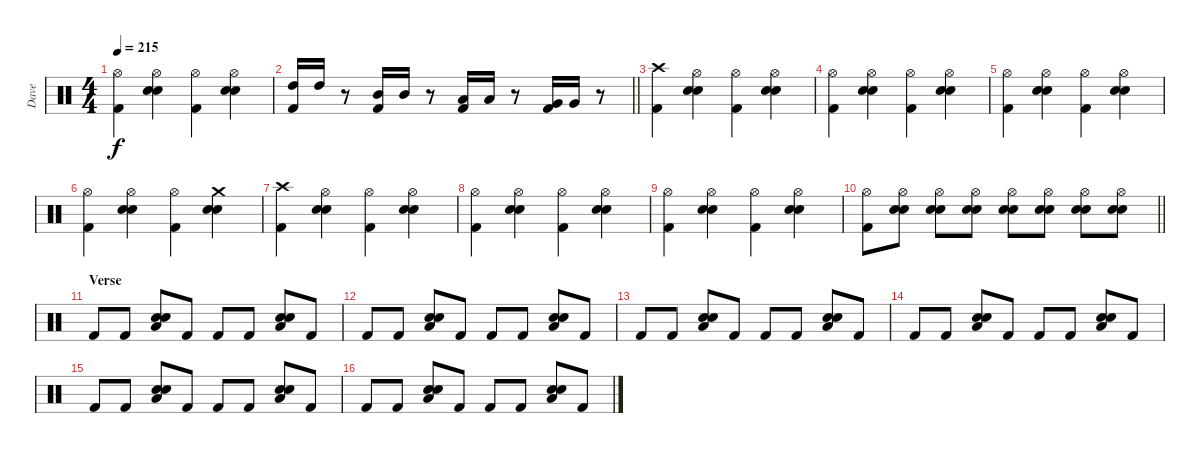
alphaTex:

\track ("Dave" "Dave") {instrument percussion}
\staff {score}
\articulation defaults
\ts (4 4)
\tempo 215
\clef neutral
\ks c
("Hi-Hat (open)" "Kick (hit) 2").4{dy f} ("Hi-Hat (open)" "Electric Snare (hit)" "Electric Snare (hit)").4 ("Hi-Hat (open)" "Kick (hit) 2").4 ("Hi-Hat (open)" "Electric Snare (hit)" "Electric Snare (hit)").4 |
\barLineRight lightlight
("Kick (hit) 2" "High Tom (hit)").16 "High Tom (hit)".16 r.8 ("Kick (hit) 2" "Mid Tom (hit)").16 "Mid Tom (hit)".16 r.8 ("Kick (hit) 2" "Low Tom (hit)").16 "Low Tom (hit)".16 r.8 ("Kick (hit) 2" "Very Low Tom (hit)").16 "Very Low Tom (hit)".16 r.8 |
("Crash high (hit)" "Kick (hit) 2").4 ("Hi-Hat (open)" "Electric Snare (hit)" "Electric Snare (hit)").4 ("Hi-Hat (open)" "Kick (hit) 2").4 ("Hi-Hat (open)" "Electric Snare (hit)" "Electric Snare (hit)").4 |
("Hi-Hat (open)" "Kick (hit) 2").4 ("Hi-Hat (open)" "Electric Snare (hit)" "Electric Snare (hit)").4 ("Hi-Hat (open)" "Kick (hit) 2").4 ("Hi-Hat (open)" "Electric Snare (hit)" "Electric Snare (hit)").4 |
("Hi-Hat (open)" "Kick (hit) 2").4 ("Hi-Hat (open)" "Electric Snare (hit)" "Electric Snare (hit)").4 ("Hi-Hat (open)" "Kick (hit) 2").4 ("Hi-Hat (open)" "Electric Snare (hit)" "Electric Snare (hit)").4 |
("Hi-Hat (open)" "Kick (hit) 2").4 ("Hi-Hat (open)" "Electric Snare (hit)" "Electric Snare (hit)").4 ("Hi-Hat (open)" "Kick (hit) 2").4 ("Crash medium (hit)" "Electric Snare (hit)" "Electric Snare (hit)").4 |
("Crash high (hit)" "Kick (hit) 2").4 ("Hi-Hat (open)" "Electric Snare (hit)" "Electric Snare (hit)").4 ("Hi-Hat (open)" "Kick (hit) 2").4 ("Hi-Hat (open)" "Electric Snare (hit)" "Electric Snare (hit)").4 |
("Hi-Hat (open)" "Kick (hit) 2").4 ("Hi-Hat (open)" "Electric Snare (hit)" "Electric Snare (hit)").4 ("Hi-Hat (open)" "Kick (hit) 2").4 ("Hi-Hat (open)" "Electric Snare (hit)" "Electric Snare (hit)").4 |
("Hi-Hat (open)" "Kick (hit) 2").4 ("Hi-Hat (open)" "Electric Snare (hit)" "Electric Snare (hit)").4 ("Hi-Hat (open)" "Kick (hit) 2").4 ("Hi-Hat (open)" "Electric Snare (hit)" "Electric Snare (hit)").4 |
\barLineRight lightlight
("Hi-Hat (open)" "Kick (hit) 2").8 ("Hi-Hat (open)" "Electric Snare (hit)" "Electric Snare (hit)").8 ("Hi-Hat (open)" "Electric Snare (hit)" "Electric Snare (hit)").8 ("Hi-Hat (open)" "Electric Snare (hit)" "Electric Snare (hit)").8 ("Hi-Hat (open)" "Electric Snare (hit)" "Electric Snare (hit)").8 ("Hi-Hat (open)" "Electric Snare (hit)" "Electric Snare (hit)").8 ("Hi-Hat (open)" "Electric Snare (hit)" "Electric Snare (hit)").8 ("Hi-Hat (open)" "Electric Snare (hit)" "Electric Snare (hit)").8 |
\section ("" "Verse")
"Kick (hit) 2".8 "Kick (hit) 2".8 ("Low Floor Tom (hit)" "Electric Snare (hit)" "Electric Snare (hit)").8 "Kick (hit) 2".8 "Kick (hit) 2".8 "Kick (hit) 2".8 ("Low Floor Tom (hit)" "Electric Snare (hit)" "Electric Snare (hit)").8 "Kick (hit) 2".8 |
"Kick (hit) 2".8 "Kick (hit) 2".8 ("Low Floor Tom (hit)" "Electric Snare (hit)" "Electric Snare (hit)").8 "Kick (hit) 2".8 "Kick (hit) 2".8 "Kick (hit) 2".8 ("Low Floor Tom (hit)" "Electric Snare (hit)" "Electric Snare (hit)").8 "Kick (hit) 2".8 |
"Kick (hit) 2".8 "Kick (hit) 2".8 ("Low Floor Tom (hit)" "Electric Snare (hit)" "Electric Snare (hit)").8 "Kick (hit) 2".8 "Kick (hit) 2".8 "Kick (hit) 2".8 ("Low Floor Tom (hit)" "Electric Snare (hit)" "Electric Snare (hit)").8 "Kick (hit) 2".8 |
"Kick (hit) 2".8 "Kick (hit) 2".8 ("Low Floor Tom (hit)" "Electric Snare (hit)" "Electric Snare (hit)").8 "Kick (hit) 2".8 "Kick (hit) 2".8 "Kick (hit) 2".8 ("Low Floor Tom (hit)" "Electric Snare (hit)" "Electric Snare (hit)").8 "Kick (hit) 2".8 |
"Kick (hit) 2".8 "Kick (hit) 2".8 ("Low Floor Tom (hit)" "Electric Snare (hit)" "Electric Snare (hit)").8 "Kick (hit) 2".8 "Kick (hit) 2".8 "Kick (hit) 2".8 ("Low Floor Tom (hit)" "Electric Snare (hit)" "Electric Snare (hit)").8 "Kick (hit) 2".8 |
"Kick (hit) 2".8 "Kick (hit) 2".8 ("Low Floor Tom (hit)" "Electric Snare (hit)" "Electric Snare (hit)").8 "Kick (hit) 2".8 "Kick (hit) 2".8 "Kick (hit) 2".8 ("Low Floor Tom (hit)" "Electric Snare (hit)" "Electric Snare (hit)").8 "Kick (hit) 2".8
